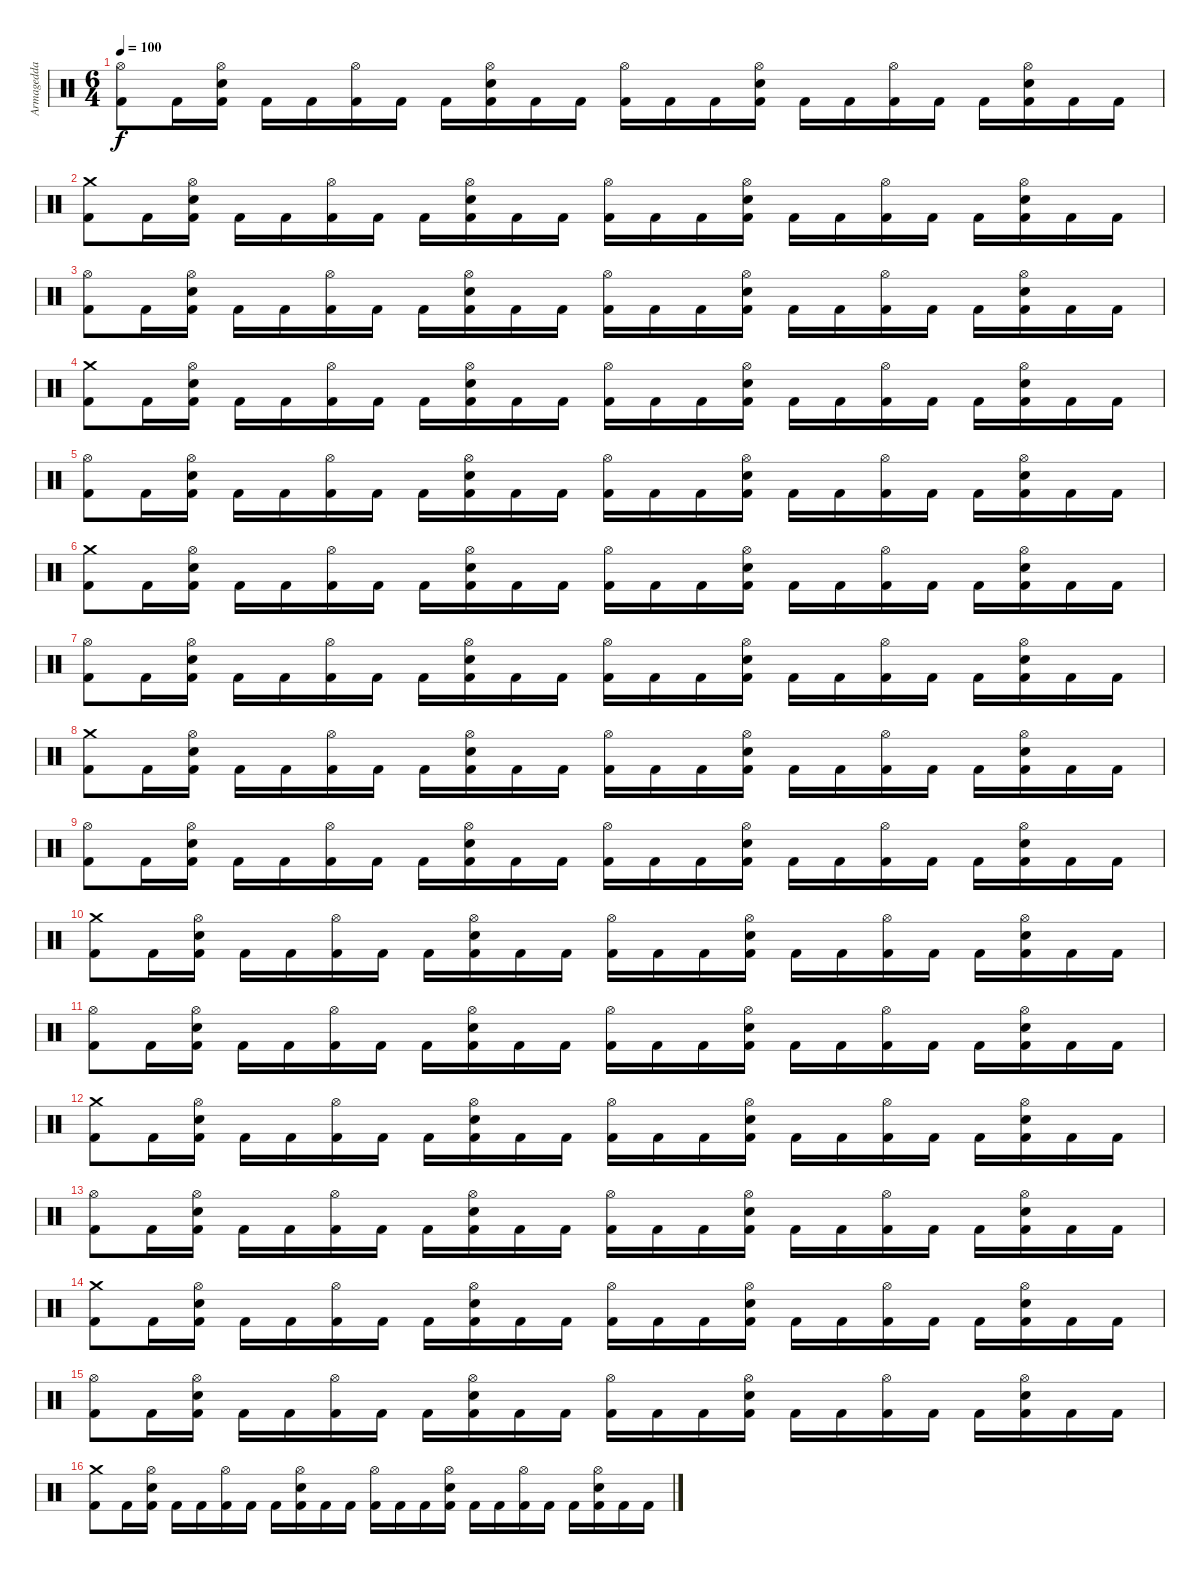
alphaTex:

\track ("Armagedda" "Armagedda") {instrument percussion}
\staff {score}
\articulation defaults
\ts (6 4)
\tempo 100
\clef neutral
\ks c
("Hi-Hat (open)" "Kick (hit) 2").8{dy f} "Kick (hit) 2".16 ("Hi-Hat (open)" "Snare (hit) 2" "Kick (hit) 2").16 "Kick (hit) 2".16 "Kick (hit) 2".16 ("Hi-Hat (open)" "Kick (hit) 2").16 "Kick (hit) 2".16 "Kick (hit) 2".16 ("Hi-Hat (open)" "Snare (hit) 2" "Kick (hit) 2").16 "Kick (hit) 2".16 "Kick (hit) 2".16 ("Hi-Hat (open)" "Kick (hit) 2").16 "Kick (hit) 2".16 "Kick (hit) 2".16 ("Hi-Hat (open)" "Snare (hit) 2" "Kick (hit) 2").16 "Kick (hit) 2".16 "Kick (hit) 2".16 ("Hi-Hat (open)" "Kick (hit) 2").16 "Kick (hit) 2".16 "Kick (hit) 2".16 ("Hi-Hat (open)" "Snare (hit) 2" "Kick (hit) 2").16 "Kick (hit) 2".16 "Kick (hit) 2".16 |
("Crash medium (hit)" "Kick (hit) 2").8 "Kick (hit) 2".16 ("Hi-Hat (open)" "Snare (hit) 2" "Kick (hit) 2").16 "Kick (hit) 2".16 "Kick (hit) 2".16 ("Hi-Hat (open)" "Kick (hit) 2").16 "Kick (hit) 2".16 "Kick (hit) 2".16 ("Hi-Hat (open)" "Snare (hit) 2" "Kick (hit) 2").16 "Kick (hit) 2".16 "Kick (hit) 2".16 ("Hi-Hat (open)" "Kick (hit) 2").16 "Kick (hit) 2".16 "Kick (hit) 2".16 ("Hi-Hat (open)" "Snare (hit) 2" "Kick (hit) 2").16 "Kick (hit) 2".16 "Kick (hit) 2".16 ("Hi-Hat (open)" "Kick (hit) 2").16 "Kick (hit) 2".16 "Kick (hit) 2".16 ("Hi-Hat (open)" "Snare (hit) 2" "Kick (hit) 2").16 "Kick (hit) 2".16 "Kick (hit) 2".16 |
("Hi-Hat (open)" "Kick (hit) 2").8 "Kick (hit) 2".16 ("Hi-Hat (open)" "Snare (hit) 2" "Kick (hit) 2").16 "Kick (hit) 2".16 "Kick (hit) 2".16 ("Hi-Hat (open)" "Kick (hit) 2").16 "Kick (hit) 2".16 "Kick (hit) 2".16 ("Hi-Hat (open)" "Snare (hit) 2" "Kick (hit) 2").16 "Kick (hit) 2".16 "Kick (hit) 2".16 ("Hi-Hat (open)" "Kick (hit) 2").16 "Kick (hit) 2".16 "Kick (hit) 2".16 ("Hi-Hat (open)" "Snare (hit) 2" "Kick (hit) 2").16 "Kick (hit) 2".16 "Kick (hit) 2".16 ("Hi-Hat (open)" "Kick (hit) 2").16 "Kick (hit) 2".16 "Kick (hit) 2".16 ("Hi-Hat (open)" "Snare (hit) 2" "Kick (hit) 2").16 "Kick (hit) 2".16 "Kick (hit) 2".16 |
("Crash medium (hit)" "Kick (hit) 2").8 "Kick (hit) 2".16 ("Hi-Hat (open)" "Snare (hit) 2" "Kick (hit) 2").16 "Kick (hit) 2".16 "Kick (hit) 2".16 ("Hi-Hat (open)" "Kick (hit) 2").16 "Kick (hit) 2".16 "Kick (hit) 2".16 ("Hi-Hat (open)" "Snare (hit) 2" "Kick (hit) 2").16 "Kick (hit) 2".16 "Kick (hit) 2".16 ("Hi-Hat (open)" "Kick (hit) 2").16 "Kick (hit) 2".16 "Kick (hit) 2".16 ("Hi-Hat (open)" "Snare (hit) 2" "Kick (hit) 2").16 "Kick (hit) 2".16 "Kick (hit) 2".16 ("Hi-Hat (open)" "Kick (hit) 2").16 "Kick (hit) 2".16 "Kick (hit) 2".16 ("Hi-Hat (open)" "Snare (hit) 2" "Kick (hit) 2").16 "Kick (hit) 2".16 "Kick (hit) 2".16 |
("Hi-Hat (open)" "Kick (hit) 2").8 "Kick (hit) 2".16 ("Hi-Hat (open)" "Snare (hit) 2" "Kick (hit) 2").16 "Kick (hit) 2".16 "Kick (hit) 2".16 ("Hi-Hat (open)" "Kick (hit) 2").16 "Kick (hit) 2".16 "Kick (hit) 2".16 ("Hi-Hat (open)" "Snare (hit) 2" "Kick (hit) 2").16 "Kick (hit) 2".16 "Kick (hit) 2".16 ("Hi-Hat (open)" "Kick (hit) 2").16 "Kick (hit) 2".16 "Kick (hit) 2".16 ("Hi-Hat (open)" "Snare (hit) 2" "Kick (hit) 2").16 "Kick (hit) 2".16 "Kick (hit) 2".16 ("Hi-Hat (open)" "Kick (hit) 2").16 "Kick (hit) 2".16 "Kick (hit) 2".16 ("Hi-Hat (open)" "Snare (hit) 2" "Kick (hit) 2").16 "Kick (hit) 2".16 "Kick (hit) 2".16 |
("Crash medium (hit)" "Kick (hit) 2").8 "Kick (hit) 2".16 ("Hi-Hat (open)" "Snare (hit) 2" "Kick (hit) 2").16 "Kick (hit) 2".16 "Kick (hit) 2".16 ("Hi-Hat (open)" "Kick (hit) 2").16 "Kick (hit) 2".16 "Kick (hit) 2".16 ("Hi-Hat (open)" "Snare (hit) 2" "Kick (hit) 2").16 "Kick (hit) 2".16 "Kick (hit) 2".16 ("Hi-Hat (open)" "Kick (hit) 2").16 "Kick (hit) 2".16 "Kick (hit) 2".16 ("Hi-Hat (open)" "Snare (hit) 2" "Kick (hit) 2").16 "Kick (hit) 2".16 "Kick (hit) 2".16 ("Hi-Hat (open)" "Kick (hit) 2").16 "Kick (hit) 2".16 "Kick (hit) 2".16 ("Hi-Hat (open)" "Snare (hit) 2" "Kick (hit) 2").16 "Kick (hit) 2".16 "Kick (hit) 2".16 |
("Hi-Hat (open)" "Kick (hit) 2").8 "Kick (hit) 2".16 ("Hi-Hat (open)" "Snare (hit) 2" "Kick (hit) 2").16 "Kick (hit) 2".16 "Kick (hit) 2".16 ("Hi-Hat (open)" "Kick (hit) 2").16 "Kick (hit) 2".16 "Kick (hit) 2".16 ("Hi-Hat (open)" "Snare (hit) 2" "Kick (hit) 2").16 "Kick (hit) 2".16 "Kick (hit) 2".16 ("Hi-Hat (open)" "Kick (hit) 2").16 "Kick (hit) 2".16 "Kick (hit) 2".16 ("Hi-Hat (open)" "Snare (hit) 2" "Kick (hit) 2").16 "Kick (hit) 2".16 "Kick (hit) 2".16 ("Hi-Hat (open)" "Kick (hit) 2").16 "Kick (hit) 2".16 "Kick (hit) 2".16 ("Hi-Hat (open)" "Snare (hit) 2" "Kick (hit) 2").16 "Kick (hit) 2".16 "Kick (hit) 2".16 |
("Crash medium (hit)" "Kick (hit) 2").8 "Kick (hit) 2".16 ("Hi-Hat (open)" "Snare (hit) 2" "Kick (hit) 2").16 "Kick (hit) 2".16 "Kick (hit) 2".16 ("Hi-Hat (open)" "Kick (hit) 2").16 "Kick (hit) 2".16 "Kick (hit) 2".16 ("Hi-Hat (open)" "Snare (hit) 2" "Kick (hit) 2").16 "Kick (hit) 2".16 "Kick (hit) 2".16 ("Hi-Hat (open)" "Kick (hit) 2").16 "Kick (hit) 2".16 "Kick (hit) 2".16 ("Hi-Hat (open)" "Snare (hit) 2" "Kick (hit) 2").16 "Kick (hit) 2".16 "Kick (hit) 2".16 ("Hi-Hat (open)" "Kick (hit) 2").16 "Kick (hit) 2".16 "Kick (hit) 2".16 ("Hi-Hat (open)" "Snare (hit) 2" "Kick (hit) 2").16 "Kick (hit) 2".16 "Kick (hit) 2".16 |
("Hi-Hat (open)" "Kick (hit) 2").8 "Kick (hit) 2".16 ("Hi-Hat (open)" "Snare (hit) 2" "Kick (hit) 2").16 "Kick (hit) 2".16 "Kick (hit) 2".16 ("Hi-Hat (open)" "Kick (hit) 2").16 "Kick (hit) 2".16 "Kick (hit) 2".16 ("Hi-Hat (open)" "Snare (hit) 2" "Kick (hit) 2").16 "Kick (hit) 2".16 "Kick (hit) 2".16 ("Hi-Hat (open)" "Kick (hit) 2").16 "Kick (hit) 2".16 "Kick (hit) 2".16 ("Hi-Hat (open)" "Snare (hit) 2" "Kick (hit) 2").16 "Kick (hit) 2".16 "Kick (hit) 2".16 ("Hi-Hat (open)" "Kick (hit) 2").16 "Kick (hit) 2".16 "Kick (hit) 2".16 ("Hi-Hat (open)" "Snare (hit) 2" "Kick (hit) 2").16 "Kick (hit) 2".16 "Kick (hit) 2".16 |
("Crash medium (hit)" "Kick (hit) 2").8 "Kick (hit) 2".16 ("Hi-Hat (open)" "Snare (hit) 2" "Kick (hit) 2").16 "Kick (hit) 2".16 "Kick (hit) 2".16 ("Hi-Hat (open)" "Kick (hit) 2").16 "Kick (hit) 2".16 "Kick (hit) 2".16 ("Hi-Hat (open)" "Snare (hit) 2" "Kick (hit) 2").16 "Kick (hit) 2".16 "Kick (hit) 2".16 ("Hi-Hat (open)" "Kick (hit) 2").16 "Kick (hit) 2".16 "Kick (hit) 2".16 ("Hi-Hat (open)" "Snare (hit) 2" "Kick (hit) 2").16 "Kick (hit) 2".16 "Kick (hit) 2".16 ("Hi-Hat (open)" "Kick (hit) 2").16 "Kick (hit) 2".16 "Kick (hit) 2".16 ("Hi-Hat (open)" "Snare (hit) 2" "Kick (hit) 2").16 "Kick (hit) 2".16 "Kick (hit) 2".16 |
("Hi-Hat (open)" "Kick (hit) 2").8 "Kick (hit) 2".16 ("Hi-Hat (open)" "Snare (hit) 2" "Kick (hit) 2").16 "Kick (hit) 2".16 "Kick (hit) 2".16 ("Hi-Hat (open)" "Kick (hit) 2").16 "Kick (hit) 2".16 "Kick (hit) 2".16 ("Hi-Hat (open)" "Snare (hit) 2" "Kick (hit) 2").16 "Kick (hit) 2".16 "Kick (hit) 2".16 ("Hi-Hat (open)" "Kick (hit) 2").16 "Kick (hit) 2".16 "Kick (hit) 2".16 ("Hi-Hat (open)" "Snare (hit) 2" "Kick (hit) 2").16 "Kick (hit) 2".16 "Kick (hit) 2".16 ("Hi-Hat (open)" "Kick (hit) 2").16 "Kick (hit) 2".16 "Kick (hit) 2".16 ("Hi-Hat (open)" "Snare (hit) 2" "Kick (hit) 2").16 "Kick (hit) 2".16 "Kick (hit) 2".16 |
("Crash medium (hit)" "Kick (hit) 2").8 "Kick (hit) 2".16 ("Hi-Hat (open)" "Snare (hit) 2" "Kick (hit) 2").16 "Kick (hit) 2".16 "Kick (hit) 2".16 ("Hi-Hat (open)" "Kick (hit) 2").16 "Kick (hit) 2".16 "Kick (hit) 2".16 ("Hi-Hat (open)" "Snare (hit) 2" "Kick (hit) 2").16 "Kick (hit) 2".16 "Kick (hit) 2".16 ("Hi-Hat (open)" "Kick (hit) 2").16 "Kick (hit) 2".16 "Kick (hit) 2".16 ("Hi-Hat (open)" "Snare (hit) 2" "Kick (hit) 2").16 "Kick (hit) 2".16 "Kick (hit) 2".16 ("Hi-Hat (open)" "Kick (hit) 2").16 "Kick (hit) 2".16 "Kick (hit) 2".16 ("Hi-Hat (open)" "Snare (hit) 2" "Kick (hit) 2").16 "Kick (hit) 2".16 "Kick (hit) 2".16 |
("Hi-Hat (open)" "Kick (hit) 2").8 "Kick (hit) 2".16 ("Hi-Hat (open)" "Snare (hit) 2" "Kick (hit) 2").16 "Kick (hit) 2".16 "Kick (hit) 2".16 ("Hi-Hat (open)" "Kick (hit) 2").16 "Kick (hit) 2".16 "Kick (hit) 2".16 ("Hi-Hat (open)" "Snare (hit) 2" "Kick (hit) 2").16 "Kick (hit) 2".16 "Kick (hit) 2".16 ("Hi-Hat (open)" "Kick (hit) 2").16 "Kick (hit) 2".16 "Kick (hit) 2".16 ("Hi-Hat (open)" "Snare (hit) 2" "Kick (hit) 2").16 "Kick (hit) 2".16 "Kick (hit) 2".16 ("Hi-Hat (open)" "Kick (hit) 2").16 "Kick (hit) 2".16 "Kick (hit) 2".16 ("Hi-Hat (open)" "Snare (hit) 2" "Kick (hit) 2").16 "Kick (hit) 2".16 "Kick (hit) 2".16 |
("Crash medium (hit)" "Kick (hit) 2").8 "Kick (hit) 2".16 ("Hi-Hat (open)" "Snare (hit) 2" "Kick (hit) 2").16 "Kick (hit) 2".16 "Kick (hit) 2".16 ("Hi-Hat (open)" "Kick (hit) 2").16 "Kick (hit) 2".16 "Kick (hit) 2".16 ("Hi-Hat (open)" "Snare (hit) 2" "Kick (hit) 2").16 "Kick (hit) 2".16 "Kick (hit) 2".16 ("Hi-Hat (open)" "Kick (hit) 2").16 "Kick (hit) 2".16 "Kick (hit) 2".16 ("Hi-Hat (open)" "Snare (hit) 2" "Kick (hit) 2").16 "Kick (hit) 2".16 "Kick (hit) 2".16 ("Hi-Hat (open)" "Kick (hit) 2").16 "Kick (hit) 2".16 "Kick (hit) 2".16 ("Hi-Hat (open)" "Snare (hit) 2" "Kick (hit) 2").16 "Kick (hit) 2".16 "Kick (hit) 2".16 |
("Hi-Hat (open)" "Kick (hit) 2").8 "Kick (hit) 2".16 ("Hi-Hat (open)" "Snare (hit) 2" "Kick (hit) 2").16 "Kick (hit) 2".16 "Kick (hit) 2".16 ("Hi-Hat (open)" "Kick (hit) 2").16 "Kick (hit) 2".16 "Kick (hit) 2".16 ("Hi-Hat (open)" "Snare (hit) 2" "Kick (hit) 2").16 "Kick (hit) 2".16 "Kick (hit) 2".16 ("Hi-Hat (open)" "Kick (hit) 2").16 "Kick (hit) 2".16 "Kick (hit) 2".16 ("Hi-Hat (open)" "Snare (hit) 2" "Kick (hit) 2").16 "Kick (hit) 2".16 "Kick (hit) 2".16 ("Hi-Hat (open)" "Kick (hit) 2").16 "Kick (hit) 2".16 "Kick (hit) 2".16 ("Hi-Hat (open)" "Snare (hit) 2" "Kick (hit) 2").16 "Kick (hit) 2".16 "Kick (hit) 2".16 |
("Crash medium (hit)" "Kick (hit) 2").8 "Kick (hit) 2".16 ("Hi-Hat (open)" "Snare (hit) 2" "Kick (hit) 2").16 "Kick (hit) 2".16 "Kick (hit) 2".16 ("Hi-Hat (open)" "Kick (hit) 2").16 "Kick (hit) 2".16 "Kick (hit) 2".16 ("Hi-Hat (open)" "Snare (hit) 2" "Kick (hit) 2").16 "Kick (hit) 2".16 "Kick (hit) 2".16 ("Hi-Hat (open)" "Kick (hit) 2").16 "Kick (hit) 2".16 "Kick (hit) 2".16 ("Hi-Hat (open)" "Snare (hit) 2" "Kick (hit) 2").16 "Kick (hit) 2".16 "Kick (hit) 2".16 ("Hi-Hat (open)" "Kick (hit) 2").16 "Kick (hit) 2".16 "Kick (hit) 2".16 ("Hi-Hat (open)" "Snare (hit) 2" "Kick (hit) 2").16 "Kick (hit) 2".16 "Kick (hit) 2".16
